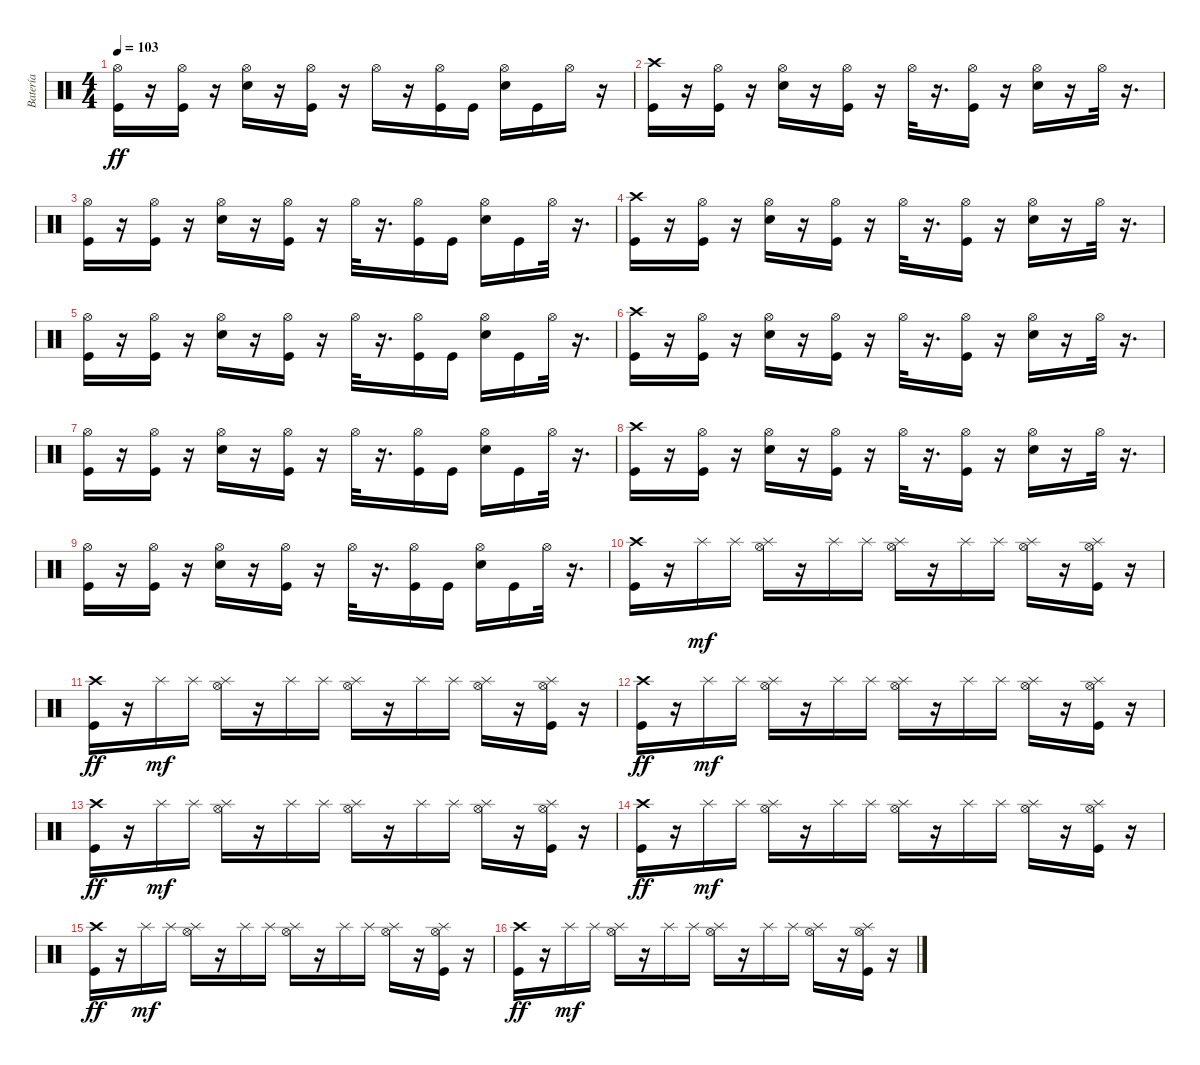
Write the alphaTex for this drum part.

\track ("Batería" "Batería") {instrument percussion}
\staff {score}
\articulation defaults
\ts (4 4)
\tempo 103
\clef neutral
\ks c
("Kick (hit)" "Hi-Hat (open)").16{dy ff} r.16 ("Kick (hit)" "Hi-Hat (open)").16 r.16 ("Snare (hit) 2" "Hi-Hat (open)").16 r.16 ("Kick (hit)" "Hi-Hat (open)").16 r.16 "Hi-Hat (open)".16 r.16 ("Kick (hit)" "Hi-Hat (open)").16 "Kick (hit)".16 ("Hi-Hat (open)" "Snare (hit) 2").16 "Kick (hit)".16 "Hi-Hat (open)".16 r.16 |
("Crash high (hit)" "Kick (hit)").16 r.16 ("Kick (hit)" "Hi-Hat (open)").16 r.16 ("Snare (hit) 2" "Hi-Hat (open)").16 r.16 ("Kick (hit)" "Hi-Hat (open)").16 r.16 "Hi-Hat (open)".32 r.16{d} ("Kick (hit)" "Hi-Hat (open)").16 r.16 ("Snare (hit) 2" "Hi-Hat (open)").16 r.16 "Hi-Hat (open)".32 r.16{d} |
("Kick (hit)" "Hi-Hat (open)").16 r.16 ("Kick (hit)" "Hi-Hat (open)").16 r.16 ("Snare (hit) 2" "Hi-Hat (open)").16 r.16 ("Kick (hit)" "Hi-Hat (open)").16 r.16 "Hi-Hat (open)".32 r.16{d} ("Kick (hit)" "Hi-Hat (open)").16 "Kick (hit)".16 ("Snare (hit) 2" "Hi-Hat (open)").16 "Kick (hit)".16 "Hi-Hat (open)".32 r.16{d} |
("Kick (hit)" "Crash high (hit)").16 r.16 ("Kick (hit)" "Hi-Hat (open)").16 r.16 ("Snare (hit) 2" "Hi-Hat (open)").16 r.16 ("Kick (hit)" "Hi-Hat (open)").16 r.16 "Hi-Hat (open)".32 r.16{d} ("Kick (hit)" "Hi-Hat (open)").16 r.16 ("Snare (hit) 2" "Hi-Hat (open)").16 r.16 "Hi-Hat (open)".32 r.16{d} |
("Kick (hit)" "Hi-Hat (open)").16 r.16 ("Kick (hit)" "Hi-Hat (open)").16 r.16 ("Snare (hit) 2" "Hi-Hat (open)").16 r.16 ("Kick (hit)" "Hi-Hat (open)").16 r.16 "Hi-Hat (open)".32 r.16{d} ("Kick (hit)" "Hi-Hat (open)").16 "Kick (hit)".16 ("Snare (hit) 2" "Hi-Hat (open)").16 "Kick (hit)".16 "Hi-Hat (open)".32 r.16{d} |
("Crash high (hit)" "Kick (hit)").16 r.16 ("Kick (hit)" "Hi-Hat (open)").16 r.16 ("Snare (hit) 2" "Hi-Hat (open)").16 r.16 ("Kick (hit)" "Hi-Hat (open)").16 r.16 "Hi-Hat (open)".32 r.16{d} ("Kick (hit)" "Hi-Hat (open)").16 r.16 ("Snare (hit) 2" "Hi-Hat (open)").16 r.16 "Hi-Hat (open)".32 r.16{d} |
("Kick (hit)" "Hi-Hat (open)").16 r.16 ("Kick (hit)" "Hi-Hat (open)").16 r.16 ("Snare (hit) 2" "Hi-Hat (open)").16 r.16 ("Kick (hit)" "Hi-Hat (open)").16 r.16 "Hi-Hat (open)".32 r.16{d} ("Kick (hit)" "Hi-Hat (open)").16 "Kick (hit)".16 ("Snare (hit) 2" "Hi-Hat (open)").16 "Kick (hit)".16 "Hi-Hat (open)".32 r.16{d} |
("Kick (hit)" "Crash high (hit)").16 r.16 ("Kick (hit)" "Hi-Hat (open)").16 r.16 ("Snare (hit) 2" "Hi-Hat (open)").16 r.16 ("Kick (hit)" "Hi-Hat (open)").16 r.16 "Hi-Hat (open)".32 r.16{d} ("Kick (hit)" "Hi-Hat (open)").16 r.16 ("Snare (hit) 2" "Hi-Hat (open)").16 r.16 "Hi-Hat (open)".32 r.16{d} |
("Kick (hit)" "Hi-Hat (open)").16 r.16 ("Kick (hit)" "Hi-Hat (open)").16 r.16 ("Snare (hit) 2" "Hi-Hat (open)").16 r.16 ("Kick (hit)" "Hi-Hat (open)").16 r.16 "Hi-Hat (open)".32 r.16{d} ("Kick (hit)" "Hi-Hat (open)").16 "Kick (hit)".16 ("Snare (hit) 2" "Hi-Hat (open)").16 "Kick (hit)".16 "Hi-Hat (open)".32 r.16{d} |
("Kick (hit)" "Crash high (hit)").16 r.16 "Splash (hit)".16{dy mf} "Splash (hit)".16 ("Hi-Hat (open)" "Splash (hit)").16 r.16 "Splash (hit)".16 "Splash (hit)".16 ("Hi-Hat (open)" "Splash (hit)").16 r.16 "Splash (hit)".16 "Splash (hit)".16 ("Hi-Hat (open)" "Splash (hit)").16 r.16 ("Kick (hit)" "Hi-Hat (open)" "Splash (hit)").16 r.16 |
("Crash high (hit)" "Kick (hit)").16{dy ff} r.16 "Splash (hit)".16{dy mf} "Splash (hit)".16 ("Hi-Hat (open)" "Splash (hit)").16 r.16 "Splash (hit)".16 "Splash (hit)".16 ("Hi-Hat (open)" "Splash (hit)").16 r.16 "Splash (hit)".16 "Splash (hit)".16 ("Hi-Hat (open)" "Splash (hit)").16 r.16 ("Kick (hit)" "Hi-Hat (open)" "Splash (hit)").16 r.16 |
("Crash high (hit)" "Kick (hit)").16{dy ff} r.16 "Splash (hit)".16{dy mf} "Splash (hit)".16 ("Hi-Hat (open)" "Splash (hit)").16 r.16 "Splash (hit)".16 "Splash (hit)".16 ("Hi-Hat (open)" "Splash (hit)").16 r.16 "Splash (hit)".16 "Splash (hit)".16 ("Hi-Hat (open)" "Splash (hit)").16 r.16 ("Kick (hit)" "Hi-Hat (open)" "Splash (hit)").16 r.16 |
("Crash high (hit)" "Kick (hit)").16{dy ff} r.16 "Splash (hit)".16{dy mf} "Splash (hit)".16 ("Hi-Hat (open)" "Splash (hit)").16 r.16 "Splash (hit)".16 "Splash (hit)".16 ("Hi-Hat (open)" "Splash (hit)").16 r.16 "Splash (hit)".16 "Splash (hit)".16 ("Hi-Hat (open)" "Splash (hit)").16 r.16 ("Kick (hit)" "Hi-Hat (open)" "Splash (hit)").16 r.16 |
("Crash high (hit)" "Kick (hit)").16{dy ff} r.16 "Splash (hit)".16{dy mf} "Splash (hit)".16 ("Hi-Hat (open)" "Splash (hit)").16 r.16 "Splash (hit)".16 "Splash (hit)".16 ("Hi-Hat (open)" "Splash (hit)").16 r.16 "Splash (hit)".16 "Splash (hit)".16 ("Hi-Hat (open)" "Splash (hit)").16 r.16 ("Kick (hit)" "Hi-Hat (open)" "Splash (hit)").16 r.16 |
("Crash high (hit)" "Kick (hit)").16{dy ff} r.16 "Splash (hit)".16{dy mf} "Splash (hit)".16 ("Hi-Hat (open)" "Splash (hit)").16 r.16 "Splash (hit)".16 "Splash (hit)".16 ("Hi-Hat (open)" "Splash (hit)").16 r.16 "Splash (hit)".16 "Splash (hit)".16 ("Hi-Hat (open)" "Splash (hit)").16 r.16 ("Kick (hit)" "Hi-Hat (open)" "Splash (hit)").16 r.16 |
("Crash high (hit)" "Kick (hit)").16{dy ff} r.16 "Splash (hit)".16{dy mf} "Splash (hit)".16 ("Hi-Hat (open)" "Splash (hit)").16 r.16 "Splash (hit)".16 "Splash (hit)".16 ("Hi-Hat (open)" "Splash (hit)").16 r.16 "Splash (hit)".16 "Splash (hit)".16 ("Hi-Hat (open)" "Splash (hit)").16 r.16 ("Kick (hit)" "Hi-Hat (open)" "Splash (hit)").16 r.16
